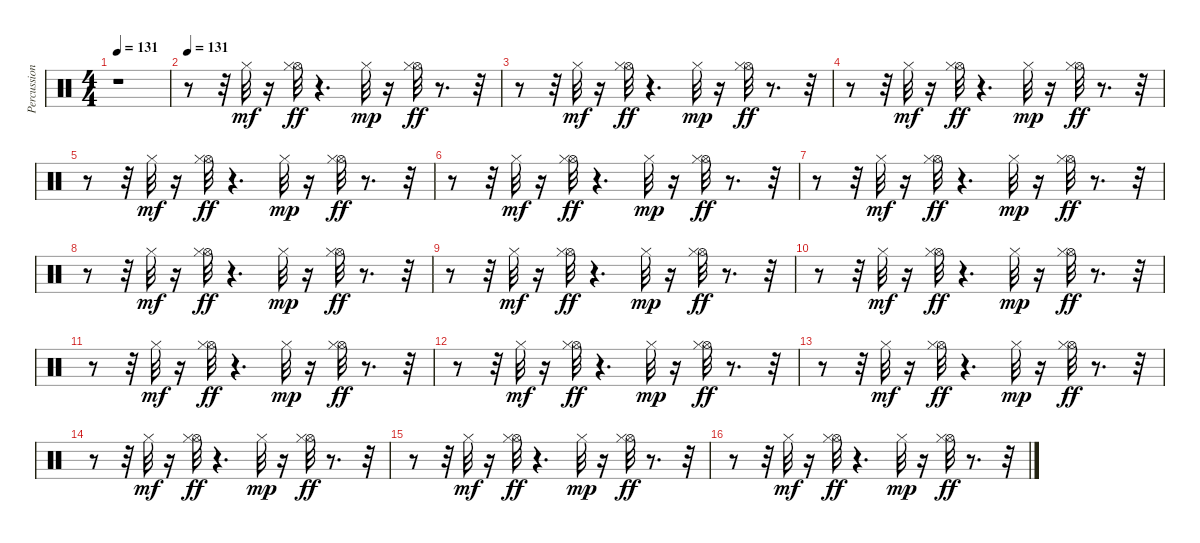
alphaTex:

\track ("Percussion" "Percussion") {instrument percussion}
\staff {score}
\articulation defaults
\ts (4 4)
\tempo 131
\clef neutral
\ks c
r.1{dy mf} |
\tempo 131
r.8 r.32 "Hi-Hat (closed)".32 r.16 ("Hi-Hat (open)" "Hi-Hat (closed)").32{dy ff} r.4{d} "Hi-Hat (closed)".32{dy mp} r.16 ("Hi-Hat (open)" "Hi-Hat (closed)").32{dy ff} r.8{d} r.32 |
r.8 r.32 "Hi-Hat (closed)".32{dy mf} r.16 ("Hi-Hat (open)" "Hi-Hat (closed)").32{dy ff} r.4{d} "Hi-Hat (closed)".32{dy mp} r.16 ("Hi-Hat (open)" "Hi-Hat (closed)").32{dy ff} r.8{d} r.32 |
r.8 r.32 "Hi-Hat (closed)".32{dy mf} r.16 ("Hi-Hat (open)" "Hi-Hat (closed)").32{dy ff} r.4{d} "Hi-Hat (closed)".32{dy mp} r.16 ("Hi-Hat (open)" "Hi-Hat (closed)").32{dy ff} r.8{d} r.32 |
r.8 r.32 "Hi-Hat (closed)".32{dy mf} r.16 ("Hi-Hat (open)" "Hi-Hat (closed)").32{dy ff} r.4{d} "Hi-Hat (closed)".32{dy mp} r.16 ("Hi-Hat (open)" "Hi-Hat (closed)").32{dy ff} r.8{d} r.32 |
r.8 r.32 "Hi-Hat (closed)".32{dy mf} r.16 ("Hi-Hat (open)" "Hi-Hat (closed)").32{dy ff} r.4{d} "Hi-Hat (closed)".32{dy mp} r.16 ("Hi-Hat (open)" "Hi-Hat (closed)").32{dy ff} r.8{d} r.32 |
r.8 r.32 "Hi-Hat (closed)".32{dy mf} r.16 ("Hi-Hat (open)" "Hi-Hat (closed)").32{dy ff} r.4{d} "Hi-Hat (closed)".32{dy mp} r.16 ("Hi-Hat (open)" "Hi-Hat (closed)").32{dy ff} r.8{d} r.32 |
r.8 r.32 "Hi-Hat (closed)".32{dy mf} r.16 ("Hi-Hat (open)" "Hi-Hat (closed)").32{dy ff} r.4{d} "Hi-Hat (closed)".32{dy mp} r.16 ("Hi-Hat (open)" "Hi-Hat (closed)").32{dy ff} r.8{d} r.32 |
r.8 r.32 "Hi-Hat (closed)".32{dy mf} r.16 ("Hi-Hat (open)" "Hi-Hat (closed)").32{dy ff} r.4{d} "Hi-Hat (closed)".32{dy mp} r.16 ("Hi-Hat (open)" "Hi-Hat (closed)").32{dy ff} r.8{d} r.32 |
r.8 r.32 "Hi-Hat (closed)".32{dy mf} r.16 ("Hi-Hat (open)" "Hi-Hat (closed)").32{dy ff} r.4{d} "Hi-Hat (closed)".32{dy mp} r.16 ("Hi-Hat (open)" "Hi-Hat (closed)").32{dy ff} r.8{d} r.32 |
r.8 r.32 "Hi-Hat (closed)".32{dy mf} r.16 ("Hi-Hat (open)" "Hi-Hat (closed)").32{dy ff} r.4{d} "Hi-Hat (closed)".32{dy mp} r.16 ("Hi-Hat (open)" "Hi-Hat (closed)").32{dy ff} r.8{d} r.32 |
r.8 r.32 "Hi-Hat (closed)".32{dy mf} r.16 ("Hi-Hat (open)" "Hi-Hat (closed)").32{dy ff} r.4{d} "Hi-Hat (closed)".32{dy mp} r.16 ("Hi-Hat (open)" "Hi-Hat (closed)").32{dy ff} r.8{d} r.32 |
r.8 r.32 "Hi-Hat (closed)".32{dy mf} r.16 ("Hi-Hat (open)" "Hi-Hat (closed)").32{dy ff} r.4{d} "Hi-Hat (closed)".32{dy mp} r.16 ("Hi-Hat (open)" "Hi-Hat (closed)").32{dy ff} r.8{d} r.32 |
r.8 r.32 "Hi-Hat (closed)".32{dy mf} r.16 ("Hi-Hat (open)" "Hi-Hat (closed)").32{dy ff} r.4{d} "Hi-Hat (closed)".32{dy mp} r.16 ("Hi-Hat (open)" "Hi-Hat (closed)").32{dy ff} r.8{d} r.32 |
r.8 r.32 "Hi-Hat (closed)".32{dy mf} r.16 ("Hi-Hat (open)" "Hi-Hat (closed)").32{dy ff} r.4{d} "Hi-Hat (closed)".32{dy mp} r.16 ("Hi-Hat (open)" "Hi-Hat (closed)").32{dy ff} r.8{d} r.32 |
r.8 r.32 "Hi-Hat (closed)".32{dy mf} r.16 ("Hi-Hat (open)" "Hi-Hat (closed)").32{dy ff} r.4{d} "Hi-Hat (closed)".32{dy mp} r.16 ("Hi-Hat (open)" "Hi-Hat (closed)").32{dy ff} r.8{d} r.32
